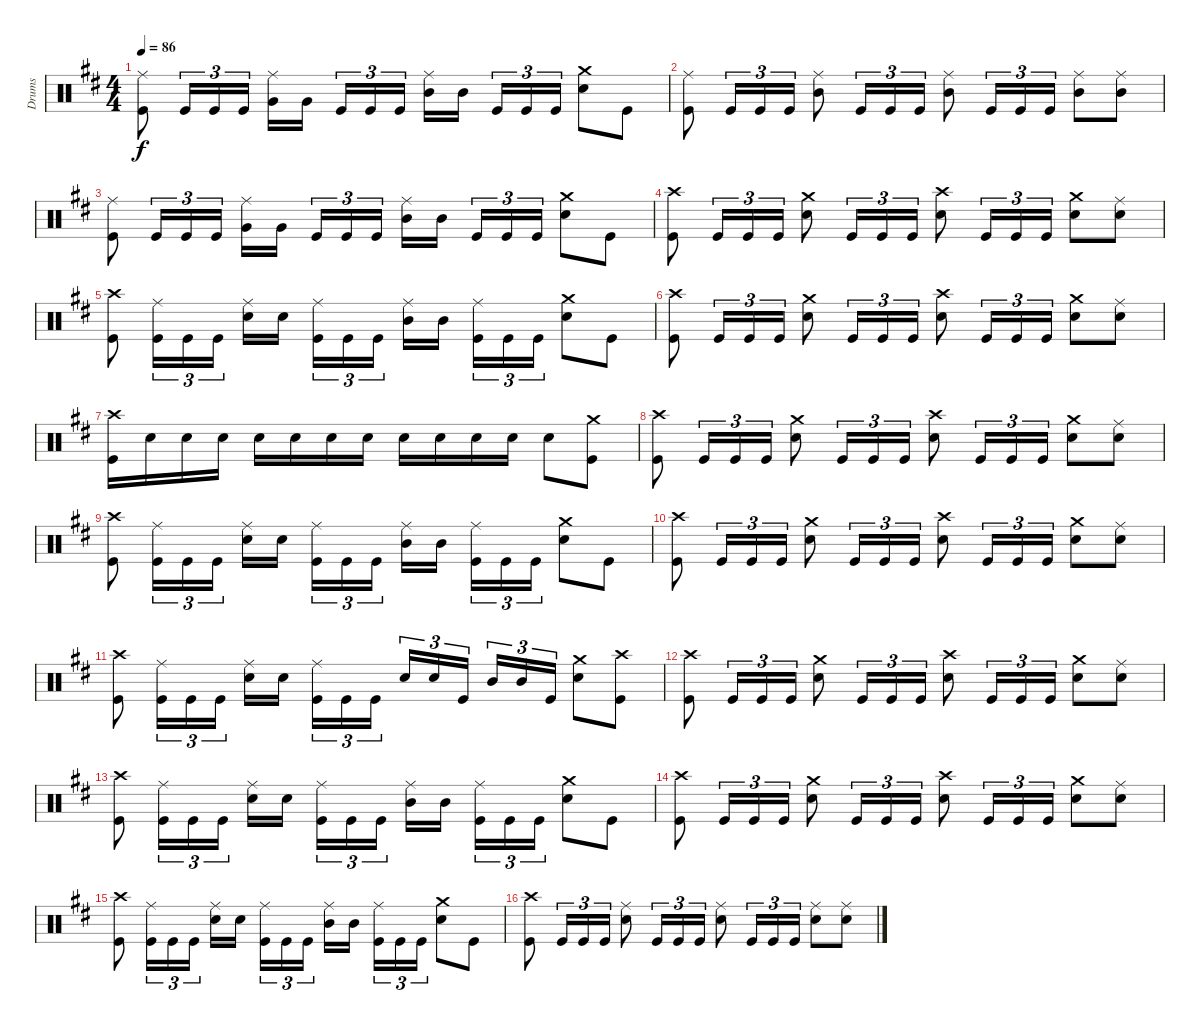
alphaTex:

\track ("Drums" "Drums") {instrument percussion}
\staff {score}
\articulation defaults
\ts (4 4)
\tempo 86
\clef neutral
\ks bminor
("Ride (middle)" "Kick (hit)").8{dy f} "Kick (hit)".16{tu (3 2)} "Kick (hit)".16{tu (3 2)} "Kick (hit)".16{tu (3 2)} ("Ride (middle)" "Very Low Tom (hit)").16 "Very Low Tom (hit)".16{beam splitsecondary} "Kick (hit)".16{tu (3 2)} "Kick (hit)".16{tu (3 2)} "Kick (hit)".16{tu (3 2)} ("Ride (middle)" "Mid Tom (hit)").16 "Mid Tom (hit)".16{beam splitsecondary} "Kick (hit)".16{tu (3 2)} "Kick (hit)".16{tu (3 2)} "Kick (hit)".16{tu (3 2)} ("Crash medium (hit)" "Snare (hit) 2").8 "Kick (hit)".8 |
("Ride (middle)" "Kick (hit)").8 "Kick (hit)".16{tu (3 2)} "Kick (hit)".16{tu (3 2)} "Kick (hit)".16{tu (3 2)} ("Ride (middle)" "Mid Tom (hit)").8 "Kick (hit)".16{tu (3 2)} "Kick (hit)".16{tu (3 2)} "Kick (hit)".16{tu (3 2)} ("Ride (middle)" "Mid Tom (hit)").8 "Kick (hit)".16{tu (3 2)} "Kick (hit)".16{tu (3 2)} "Kick (hit)".16{tu (3 2)} ("Ride (middle)" "Mid Tom (hit)").8 ("Ride (middle)" "Mid Tom (hit)").8 |
("Ride (middle)" "Kick (hit)").8 "Kick (hit)".16{tu (3 2)} "Kick (hit)".16{tu (3 2)} "Kick (hit)".16{tu (3 2)} ("Ride (middle)" "Very Low Tom (hit)").16 "Very Low Tom (hit)".16{beam splitsecondary} "Kick (hit)".16{tu (3 2)} "Kick (hit)".16{tu (3 2)} "Kick (hit)".16{tu (3 2)} ("Ride (middle)" "Mid Tom (hit)").16 "Mid Tom (hit)".16{beam splitsecondary} "Kick (hit)".16{tu (3 2)} "Kick (hit)".16{tu (3 2)} "Kick (hit)".16{tu (3 2)} ("Crash medium (hit)" "Snare (hit) 2").8 "Kick (hit)".8 |
("Crash high (hit)" "Kick (hit)").8 "Kick (hit)".16{tu (3 2)} "Kick (hit)".16{tu (3 2)} "Kick (hit)".16{tu (3 2)} ("Crash medium (hit)" "Snare (hit) 2").8 "Kick (hit)".16{tu (3 2)} "Kick (hit)".16{tu (3 2)} "Kick (hit)".16{tu (3 2)} ("Crash high (hit)" "Snare (hit) 2").8 "Kick (hit)".16{tu (3 2)} "Kick (hit)".16{tu (3 2)} "Kick (hit)".16{tu (3 2)} ("Crash medium (hit)" "Snare (hit) 2").8 ("Ride (middle)" "Snare (hit) 2").8 |
("Crash high (hit)" "Kick (hit)").8 ("Ride (middle)" "Kick (hit)").16{tu (3 2)} "Kick (hit)".16{tu (3 2)} "Kick (hit)".16{tu (3 2)} ("Ride (middle)" "Snare (hit) 2").16 "Snare (hit) 2".16{beam splitsecondary} ("Ride (middle)" "Kick (hit)").16{tu (3 2)} "Kick (hit)".16{tu (3 2)} "Kick (hit)".16{tu (3 2)} ("Ride (middle)" "Mid Tom (hit)").16 "Mid Tom (hit)".16{beam splitsecondary} ("Ride (middle)" "Kick (hit)").16{tu (3 2)} "Kick (hit)".16{tu (3 2)} "Kick (hit)".16{tu (3 2)} ("Crash medium (hit)" "Snare (hit) 2").8 "Kick (hit)".8 |
("Crash high (hit)" "Kick (hit)").8 "Kick (hit)".16{tu (3 2)} "Kick (hit)".16{tu (3 2)} "Kick (hit)".16{tu (3 2)} ("Crash medium (hit)" "Snare (hit) 2").8 "Kick (hit)".16{tu (3 2)} "Kick (hit)".16{tu (3 2)} "Kick (hit)".16{tu (3 2)} ("Crash high (hit)" "Snare (hit) 2").8 "Kick (hit)".16{tu (3 2)} "Kick (hit)".16{tu (3 2)} "Kick (hit)".16{tu (3 2)} ("Crash medium (hit)" "Snare (hit) 2").8 ("Ride (middle)" "Snare (hit) 2").8 |
("Crash high (hit)" "Kick (hit)").16 "Snare (hit) 2".16 "Snare (hit) 2".16 "Snare (hit) 2".16 "Snare (hit) 2".16 "Snare (hit) 2".16 "Snare (hit) 2".16 "Snare (hit) 2".16 "Snare (hit) 2".16 "Snare (hit) 2".16 "Snare (hit) 2".16 "Snare (hit) 2".16 "Snare (hit) 2".8 ("Crash medium (hit)" "Kick (hit)").8 |
("Crash high (hit)" "Kick (hit)").8 "Kick (hit)".16{tu (3 2)} "Kick (hit)".16{tu (3 2)} "Kick (hit)".16{tu (3 2)} ("Crash medium (hit)" "Snare (hit) 2").8 "Kick (hit)".16{tu (3 2)} "Kick (hit)".16{tu (3 2)} "Kick (hit)".16{tu (3 2)} ("Crash high (hit)" "Snare (hit) 2").8 "Kick (hit)".16{tu (3 2)} "Kick (hit)".16{tu (3 2)} "Kick (hit)".16{tu (3 2)} ("Crash medium (hit)" "Snare (hit) 2").8 ("Ride (middle)" "Snare (hit) 2").8 |
("Crash high (hit)" "Kick (hit)").8 ("Ride (middle)" "Kick (hit)").16{tu (3 2)} "Kick (hit)".16{tu (3 2)} "Kick (hit)".16{tu (3 2)} ("Ride (middle)" "Snare (hit) 2").16 "Snare (hit) 2".16{beam splitsecondary} ("Ride (middle)" "Kick (hit)").16{tu (3 2)} "Kick (hit)".16{tu (3 2)} "Kick (hit)".16{tu (3 2)} ("Ride (middle)" "Mid Tom (hit)").16 "Mid Tom (hit)".16{beam splitsecondary} ("Ride (middle)" "Kick (hit)").16{tu (3 2)} "Kick (hit)".16{tu (3 2)} "Kick (hit)".16{tu (3 2)} ("Crash medium (hit)" "Snare (hit) 2").8 "Kick (hit)".8 |
("Crash high (hit)" "Kick (hit)").8 "Kick (hit)".16{tu (3 2)} "Kick (hit)".16{tu (3 2)} "Kick (hit)".16{tu (3 2)} ("Crash medium (hit)" "Snare (hit) 2").8 "Kick (hit)".16{tu (3 2)} "Kick (hit)".16{tu (3 2)} "Kick (hit)".16{tu (3 2)} ("Crash high (hit)" "Snare (hit) 2").8 "Kick (hit)".16{tu (3 2)} "Kick (hit)".16{tu (3 2)} "Kick (hit)".16{tu (3 2)} ("Crash medium (hit)" "Snare (hit) 2").8 ("Ride (middle)" "Snare (hit) 2").8 |
("Crash high (hit)" "Kick (hit)").8 ("Ride (middle)" "Kick (hit)").16{tu (3 2)} "Kick (hit)".16{tu (3 2)} "Kick (hit)".16{tu (3 2)} ("Ride (middle)" "Snare (hit) 2").16 "Snare (hit) 2".16{beam splitsecondary} ("Ride (middle)" "Kick (hit)").16{tu (3 2)} "Kick (hit)".16{tu (3 2)} "Kick (hit)".16{tu (3 2)} "Snare (hit) 2".16{tu (3 2)} "Snare (hit) 2".16{tu (3 2)} "Kick (hit)".16{tu (3 2) beam splitsecondary} "Mid Tom (hit)".16{tu (3 2)} "Mid Tom (hit)".16{tu (3 2)} "Kick (hit)".16{tu (3 2)} ("Crash medium (hit)" "Snare (hit) 2").8 ("Crash high (hit)" "Kick (hit)").8 |
("Crash high (hit)" "Kick (hit)").8 "Kick (hit)".16{tu (3 2)} "Kick (hit)".16{tu (3 2)} "Kick (hit)".16{tu (3 2)} ("Crash medium (hit)" "Snare (hit) 2").8 "Kick (hit)".16{tu (3 2)} "Kick (hit)".16{tu (3 2)} "Kick (hit)".16{tu (3 2)} ("Crash high (hit)" "Snare (hit) 2").8 "Kick (hit)".16{tu (3 2)} "Kick (hit)".16{tu (3 2)} "Kick (hit)".16{tu (3 2)} ("Crash medium (hit)" "Snare (hit) 2").8 ("Ride (middle)" "Snare (hit) 2").8 |
("Crash high (hit)" "Kick (hit)").8 ("Ride (middle)" "Kick (hit)").16{tu (3 2)} "Kick (hit)".16{tu (3 2)} "Kick (hit)".16{tu (3 2)} ("Ride (middle)" "Snare (hit) 2").16 "Snare (hit) 2".16{beam splitsecondary} ("Ride (middle)" "Kick (hit)").16{tu (3 2)} "Kick (hit)".16{tu (3 2)} "Kick (hit)".16{tu (3 2)} ("Ride (middle)" "Mid Tom (hit)").16 "Mid Tom (hit)".16{beam splitsecondary} ("Ride (middle)" "Kick (hit)").16{tu (3 2)} "Kick (hit)".16{tu (3 2)} "Kick (hit)".16{tu (3 2)} ("Crash medium (hit)" "Snare (hit) 2").8 "Kick (hit)".8 |
("Crash high (hit)" "Kick (hit)").8 "Kick (hit)".16{tu (3 2)} "Kick (hit)".16{tu (3 2)} "Kick (hit)".16{tu (3 2)} ("Crash medium (hit)" "Snare (hit) 2").8 "Kick (hit)".16{tu (3 2)} "Kick (hit)".16{tu (3 2)} "Kick (hit)".16{tu (3 2)} ("Crash high (hit)" "Snare (hit) 2").8 "Kick (hit)".16{tu (3 2)} "Kick (hit)".16{tu (3 2)} "Kick (hit)".16{tu (3 2)} ("Crash medium (hit)" "Snare (hit) 2").8 ("Ride (middle)" "Snare (hit) 2").8 |
("Crash high (hit)" "Kick (hit)").8 ("Ride (middle)" "Kick (hit)").16{tu (3 2)} "Kick (hit)".16{tu (3 2)} "Kick (hit)".16{tu (3 2)} ("Ride (middle)" "Snare (hit) 2").16 "Snare (hit) 2".16{beam splitsecondary} ("Ride (middle)" "Kick (hit)").16{tu (3 2)} "Kick (hit)".16{tu (3 2)} "Kick (hit)".16{tu (3 2)} ("Ride (middle)" "Mid Tom (hit)").16 "Mid Tom (hit)".16{beam splitsecondary} ("Ride (middle)" "Kick (hit)").16{tu (3 2)} "Kick (hit)".16{tu (3 2)} "Kick (hit)".16{tu (3 2)} ("Crash medium (hit)" "Snare (hit) 2").8 "Kick (hit)".8 |
("Crash high (hit)" "Kick (hit)").8 "Kick (hit)".16{tu (3 2)} "Kick (hit)".16{tu (3 2)} "Kick (hit)".16{tu (3 2)} ("Ride (middle)" "Snare (hit) 2").8 "Kick (hit)".16{tu (3 2)} "Kick (hit)".16{tu (3 2)} "Kick (hit)".16{tu (3 2)} ("Ride (middle)" "Snare (hit) 2").8 "Kick (hit)".16{tu (3 2)} "Kick (hit)".16{tu (3 2)} "Kick (hit)".16{tu (3 2)} ("Ride (middle)" "Snare (hit) 2").8 ("Ride (middle)" "Snare (hit) 2").8
